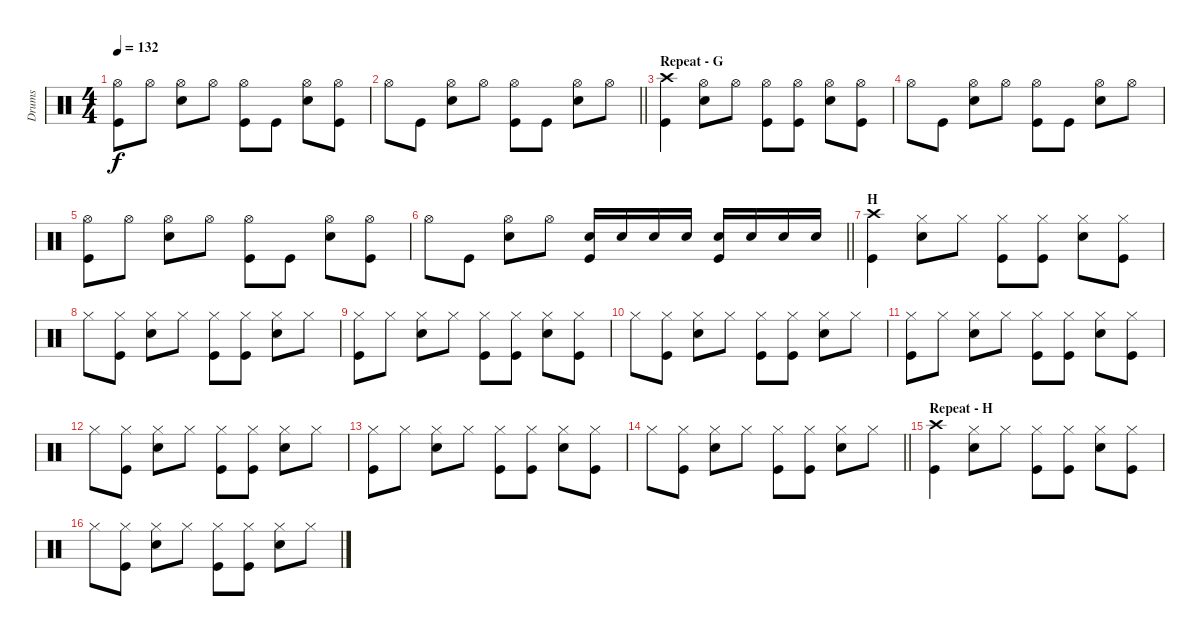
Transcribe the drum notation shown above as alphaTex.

\track ("Drums" "Drums") {instrument percussion}
\staff {score}
\articulation defaults
\ts (4 4)
\tempo 132
\clef neutral
\ks c
("Hi-Hat (open)" "Kick (hit)").8{dy f} "Hi-Hat (open)".8 ("Hi-Hat (open)" "Electric Snare (hit)").8 "Hi-Hat (open)".8 ("Hi-Hat (open)" "Kick (hit)").8 "Kick (hit)".8 ("Hi-Hat (open)" "Electric Snare (hit)").8 ("Hi-Hat (open)" "Kick (hit)").8 |
\barLineRight lightlight "Hi-Hat (open)".8 "Kick (hit)".8
("Hi-Hat (open)" "Electric Snare (hit)").8 "Hi-Hat (open)".8 ("Hi-Hat (open)" "Kick (hit)").8 "Kick (hit)".8 ("Hi-Hat (open)" "Electric Snare (hit)").8 "Hi-Hat (open)".8 |
\section ("" "Repeat - G")
("Crash high (hit)" "Kick (hit)").4 ("Hi-Hat (open)" "Electric Snare (hit)").8 "Hi-Hat (open)".8 ("Hi-Hat (open)" "Kick (hit)").8 ("Hi-Hat (open)" "Kick (hit)").8 ("Hi-Hat (open)" "Electric Snare (hit)").8 ("Hi-Hat (open)" "Kick (hit)").8 |
"Hi-Hat (open)".8 "Kick (hit)".8 ("Hi-Hat (open)" "Electric Snare (hit)").8 "Hi-Hat (open)".8 ("Hi-Hat (open)" "Kick (hit)").8 "Kick (hit)".8 ("Hi-Hat (open)" "Electric Snare (hit)").8 "Hi-Hat (open)".8 |
("Hi-Hat (open)" "Kick (hit)").8 "Hi-Hat (open)".8 ("Hi-Hat (open)" "Electric Snare (hit)").8 "Hi-Hat (open)".8 ("Hi-Hat (open)" "Kick (hit)").8 "Kick (hit)".8 ("Hi-Hat (open)" "Electric Snare (hit)").8 ("Hi-Hat (open)" "Kick (hit)").8 |
\barLineRight lightlight "Hi-Hat (open)".8 "Kick (hit)".8
("Hi-Hat (open)" "Electric Snare (hit)").8 "Hi-Hat (open)".8 ("Electric Snare (hit)" "Kick (hit)").16 "Electric Snare (hit)".16 "Electric Snare (hit)".16 "Electric Snare (hit)".16 ("Electric Snare (hit)" "Kick (hit)").16 "Electric Snare (hit)".16 "Electric Snare (hit)".16 "Electric Snare (hit)".16 |
\section ("" "H")
("Crash high (hit)" "Kick (hit)").4 ("Hi-Hat (closed)" "Electric Snare (hit)").8 "Hi-Hat (closed)".8 ("Hi-Hat (closed)" "Kick (hit)").8 ("Hi-Hat (closed)" "Kick (hit)").8 ("Hi-Hat (closed)" "Electric Snare (hit)").8 ("Hi-Hat (closed)" "Kick (hit)").8 |
"Hi-Hat (closed)".8 ("Hi-Hat (closed)" "Kick (hit)").8 ("Hi-Hat (closed)" "Electric Snare (hit)").8 "Hi-Hat (closed)".8 ("Hi-Hat (closed)" "Kick (hit)").8 ("Hi-Hat (closed)" "Kick (hit)").8 ("Hi-Hat (closed)" "Electric Snare (hit)").8 "Hi-Hat (closed)".8 |
("Hi-Hat (closed)" "Kick (hit)").8 "Hi-Hat (closed)".8 ("Hi-Hat (closed)" "Electric Snare (hit)").8 "Hi-Hat (closed)".8 ("Hi-Hat (closed)" "Kick (hit)").8 ("Hi-Hat (closed)" "Kick (hit)").8 ("Hi-Hat (closed)" "Electric Snare (hit)").8 ("Hi-Hat (closed)" "Kick (hit)").8 |
"Hi-Hat (closed)".8 ("Hi-Hat (closed)" "Kick (hit)").8 ("Hi-Hat (closed)" "Electric Snare (hit)").8 "Hi-Hat (closed)".8 ("Hi-Hat (closed)" "Kick (hit)").8 ("Hi-Hat (closed)" "Kick (hit)").8 ("Hi-Hat (closed)" "Electric Snare (hit)").8 "Hi-Hat (closed)".8 |
("Hi-Hat (closed)" "Kick (hit)").8 "Hi-Hat (closed)".8 ("Hi-Hat (closed)" "Electric Snare (hit)").8 "Hi-Hat (closed)".8 ("Hi-Hat (closed)" "Kick (hit)").8 ("Hi-Hat (closed)" "Kick (hit)").8 ("Hi-Hat (closed)" "Electric Snare (hit)").8 ("Hi-Hat (closed)" "Kick (hit)").8 |
"Hi-Hat (closed)".8 ("Hi-Hat (closed)" "Kick (hit)").8 ("Hi-Hat (closed)" "Electric Snare (hit)").8 "Hi-Hat (closed)".8 ("Hi-Hat (closed)" "Kick (hit)").8 ("Hi-Hat (closed)" "Kick (hit)").8 ("Hi-Hat (closed)" "Electric Snare (hit)").8 "Hi-Hat (closed)".8 |
("Hi-Hat (closed)" "Kick (hit)").8 "Hi-Hat (closed)".8 ("Hi-Hat (closed)" "Electric Snare (hit)").8 "Hi-Hat (closed)".8 ("Hi-Hat (closed)" "Kick (hit)").8 ("Hi-Hat (closed)" "Kick (hit)").8 ("Hi-Hat (closed)" "Electric Snare (hit)").8 ("Hi-Hat (closed)" "Kick (hit)").8 |
\barLineRight lightlight "Hi-Hat (closed)".8
("Hi-Hat (closed)" "Kick (hit)").8 ("Hi-Hat (closed)" "Electric Snare (hit)").8 "Hi-Hat (closed)".8 ("Hi-Hat (closed)" "Kick (hit)").8 ("Hi-Hat (closed)" "Kick (hit)").8 ("Hi-Hat (closed)" "Electric Snare (hit)").8 "Hi-Hat (closed)".8 |
\section ("" "Repeat - H")
("Crash high (hit)" "Kick (hit)").4 ("Hi-Hat (closed)" "Electric Snare (hit)").8 "Hi-Hat (closed)".8 ("Hi-Hat (closed)" "Kick (hit)").8 ("Hi-Hat (closed)" "Kick (hit)").8 ("Hi-Hat (closed)" "Electric Snare (hit)").8 ("Hi-Hat (closed)" "Kick (hit)").8 |
"Hi-Hat (closed)".8 ("Hi-Hat (closed)" "Kick (hit)").8 ("Hi-Hat (closed)" "Electric Snare (hit)").8 "Hi-Hat (closed)".8 ("Hi-Hat (closed)" "Kick (hit)").8 ("Hi-Hat (closed)" "Kick (hit)").8 ("Hi-Hat (closed)" "Electric Snare (hit)").8 "Hi-Hat (closed)".8
